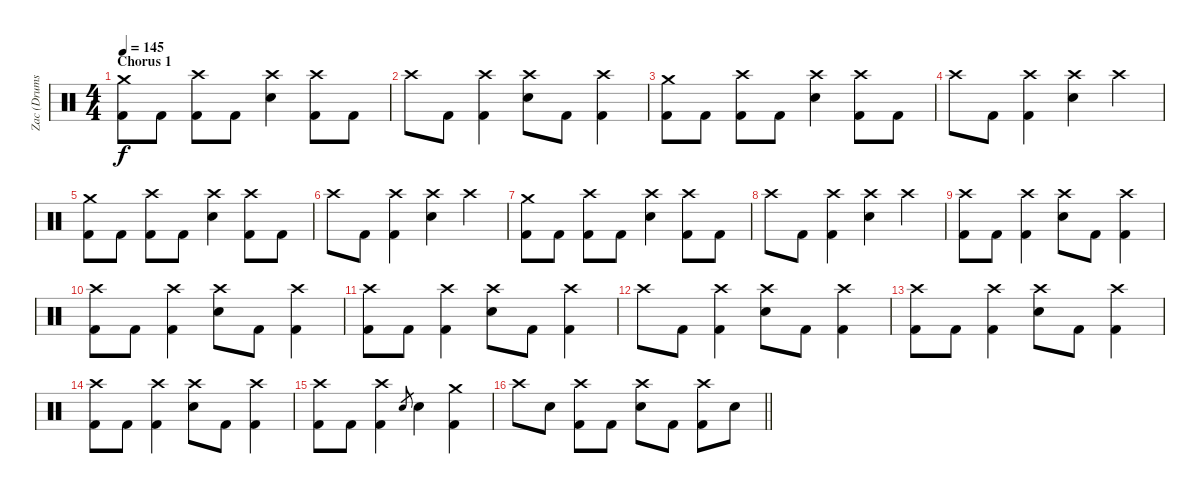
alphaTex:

\track ("Zac (Drums)" "Zac (Drums") {instrument percussion}
\staff {score}
\articulation defaults
\ts (4 4)
\section ("" "Chorus 1")
\tempo 145
\clef neutral
\ks c
("Crash medium (hit)" "Kick (hit) 2").8{dy f} "Kick (hit) 2".8 ("Crash high (hit)" "Kick (hit) 2").8 "Kick (hit) 2".8 ("Crash high (hit)" "Electric Snare (hit)").4 ("Crash high (hit)" "Kick (hit) 2").8 "Kick (hit) 2".8 |
"Crash high (hit)".8 "Kick (hit) 2".8 ("Crash high (hit)" "Kick (hit) 2").4 ("Crash high (hit)" "Electric Snare (hit)").8 "Kick (hit) 2".8 ("Crash high (hit)" "Kick (hit) 2").4 |
("Crash medium (hit)" "Kick (hit) 2").8 "Kick (hit) 2".8 ("Crash high (hit)" "Kick (hit) 2").8 "Kick (hit) 2".8 ("Crash high (hit)" "Electric Snare (hit)").4 ("Crash high (hit)" "Kick (hit) 2").8 "Kick (hit) 2".8 |
"Crash high (hit)".8 "Kick (hit) 2".8 ("Crash high (hit)" "Kick (hit) 2").4 ("Crash high (hit)" "Electric Snare (hit)").4 "Crash high (hit)".4 |
("Crash medium (hit)" "Kick (hit) 2").8 "Kick (hit) 2".8 ("Crash high (hit)" "Kick (hit) 2").8 "Kick (hit) 2".8 ("Crash high (hit)" "Electric Snare (hit)").4 ("Crash high (hit)" "Kick (hit) 2").8 "Kick (hit) 2".8 |
"Crash high (hit)".8 "Kick (hit) 2".8 ("Crash high (hit)" "Kick (hit) 2").4 ("Crash high (hit)" "Electric Snare (hit)").4 "Crash high (hit)".4 |
("Crash medium (hit)" "Kick (hit) 2").8 "Kick (hit) 2".8 ("Crash high (hit)" "Kick (hit) 2").8 "Kick (hit) 2".8 ("Crash high (hit)" "Electric Snare (hit)").4 ("Crash high (hit)" "Kick (hit) 2").8 "Kick (hit) 2".8 |
"Crash high (hit)".8 "Kick (hit) 2".8 ("Crash high (hit)" "Kick (hit) 2").4 ("Crash high (hit)" "Electric Snare (hit)").4 "Crash high (hit)".4 |
("Crash high (hit)" "Kick (hit) 2").8 "Kick (hit) 2".8 ("Crash high (hit)" "Kick (hit) 2").4 ("Crash high (hit)" "Electric Snare (hit)").8 "Kick (hit) 2".8 ("Crash high (hit)" "Kick (hit) 2").4 |
("Crash high (hit)" "Kick (hit) 2").8 "Kick (hit) 2".8 ("Crash high (hit)" "Kick (hit) 2").4 ("Crash high (hit)" "Electric Snare (hit)").8 "Kick (hit) 2".8 ("Crash high (hit)" "Kick (hit) 2").4 |
("Crash high (hit)" "Kick (hit) 2").8 "Kick (hit) 2".8 ("Crash high (hit)" "Kick (hit) 2").4 ("Crash high (hit)" "Electric Snare (hit)").8 "Kick (hit) 2".8 ("Crash high (hit)" "Kick (hit) 2").4 |
"Crash high (hit)".8 "Kick (hit) 2".8 ("Crash high (hit)" "Kick (hit) 2").4 ("Crash high (hit)" "Electric Snare (hit)").8 "Kick (hit) 2".8 ("Crash high (hit)" "Kick (hit) 2").4 |
("Crash high (hit)" "Kick (hit) 2").8 "Kick (hit) 2".8 ("Crash high (hit)" "Kick (hit) 2").4 ("Crash high (hit)" "Electric Snare (hit)").8 "Kick (hit) 2".8 ("Crash high (hit)" "Kick (hit) 2").4 |
("Crash high (hit)" "Kick (hit) 2").8 "Kick (hit) 2".8 ("Crash high (hit)" "Kick (hit) 2").4 ("Crash high (hit)" "Electric Snare (hit)").8 "Kick (hit) 2".8 ("Crash high (hit)" "Kick (hit) 2").4 |
("Crash high (hit)" "Kick (hit) 2").8 "Kick (hit) 2".8 ("Crash high (hit)" "Kick (hit) 2").4 "Electric Snare (hit)".8{gr} "Electric Snare (hit)".4 ("Crash medium (hit)" "Kick (hit) 2").4 |
\barLineRight lightlight "Crash high (hit)".8 "Electric Snare (hit)".8
("Crash high (hit)" "Kick (hit) 2").8 "Kick (hit) 2".8 ("Crash high (hit)" "Electric Snare (hit)").8 "Kick (hit) 2".8 ("Crash high (hit)" "Kick (hit) 2").8 "Electric Snare (hit)".8
